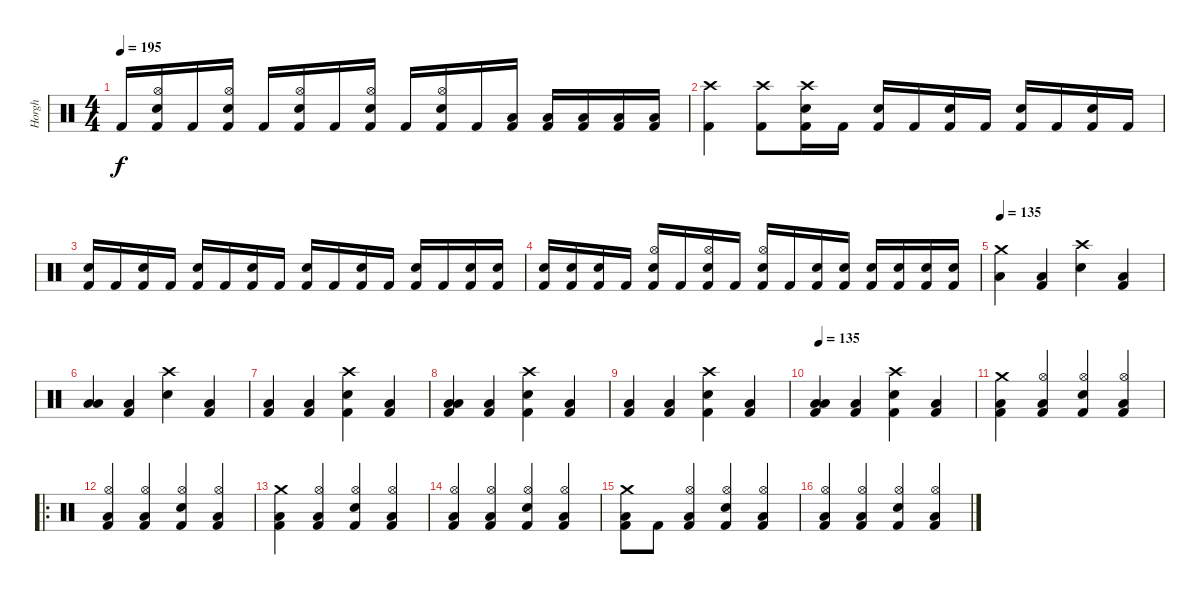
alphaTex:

\track ("Horgh" "Horgh") {instrument percussion}
\staff {score}
\articulation defaults
\ts (4 4)
\tempo 195
\clef neutral
\ks c "Kick (hit) 2".16{dy f}
("Hi-Hat (open)" "Electric Snare (hit)" "Kick (hit) 2").16 "Kick (hit) 2".16 ("Hi-Hat (open)" "Electric Snare (hit)" "Kick (hit) 2").16 "Kick (hit) 2".16 ("Hi-Hat (open)" "Electric Snare (hit)" "Kick (hit) 2").16 "Kick (hit) 2".16 ("Hi-Hat (open)" "Electric Snare (hit)" "Kick (hit) 2").16 "Kick (hit) 2".16 ("Hi-Hat (open)" "Electric Snare (hit)" "Kick (hit) 2").16 "Kick (hit) 2".16 ("Low Floor Tom (hit)" "Kick (hit) 2").16 ("Low Floor Tom (hit)" "Kick (hit) 2").16 ("Low Floor Tom (hit)" "Kick (hit) 2").16 ("Low Floor Tom (hit)" "Kick (hit) 2").16 ("Low Floor Tom (hit)" "Kick (hit) 2").16 |
("Crash high (hit)" "Kick (hit) 2").4 ("Crash high (hit)" "Kick (hit) 2").8 ("Crash high (hit)" "Electric Snare (hit)" "Kick (hit) 2").16 "Kick (hit) 2".16 ("Electric Snare (hit)" "Kick (hit) 2").16 "Kick (hit) 2".16 ("Electric Snare (hit)" "Kick (hit) 2").16 "Kick (hit) 2".16 ("Electric Snare (hit)" "Kick (hit) 2").16 "Kick (hit) 2".16 ("Electric Snare (hit)" "Kick (hit) 2").16 "Kick (hit) 2".16 |
("Electric Snare (hit)" "Kick (hit) 2").16 "Kick (hit) 2".16 ("Electric Snare (hit)" "Kick (hit) 2").16 "Kick (hit) 2".16 ("Electric Snare (hit)" "Kick (hit) 2").16 "Kick (hit) 2".16 ("Electric Snare (hit)" "Kick (hit) 2").16 "Kick (hit) 2".16 ("Electric Snare (hit)" "Kick (hit) 2").16 "Kick (hit) 2".16 ("Electric Snare (hit)" "Kick (hit) 2").16 "Kick (hit) 2".16 ("Electric Snare (hit)" "Kick (hit) 2").16 "Kick (hit) 2".16 ("Electric Snare (hit)" "Kick (hit) 2").16 ("Electric Snare (hit)" "Kick (hit) 2").16 |
("Electric Snare (hit)" "Kick (hit) 2").16 ("Electric Snare (hit)" "Kick (hit) 2").16 ("Electric Snare (hit)" "Kick (hit) 2").16 "Kick (hit) 2".16 ("Hi-Hat (open)" "Electric Snare (hit)" "Kick (hit) 2").16 "Kick (hit) 2".16 ("Hi-Hat (open)" "Electric Snare (hit)" "Kick (hit) 2").16 "Kick (hit) 2".16 ("Hi-Hat (open)" "Electric Snare (hit)" "Kick (hit) 2").16 "Kick (hit) 2".16 ("Electric Snare (hit)" "Kick (hit) 2").16 ("Electric Snare (hit)" "Kick (hit) 2").16 ("Electric Snare (hit)" "Kick (hit) 2").16 ("Electric Snare (hit)" "Kick (hit) 2").16 ("Electric Snare (hit)" "Kick (hit) 2").16 ("Electric Snare (hit)" "Kick (hit) 2").16 |
\tempo 135
("Crash medium (hit)" "Low Floor Tom (hit)").4 ("Low Floor Tom (hit)" "Kick (hit) 2").4 ("Crash high (hit)" "Electric Snare (hit)").4 ("Low Floor Tom (hit)" "Kick (hit) 2").4 |
("Low Floor Tom (hit)" "Low Floor Tom (hit)").4 ("Low Floor Tom (hit)" "Kick (hit) 2").4 ("Crash high (hit)" "Electric Snare (hit)").4 ("Low Floor Tom (hit)" "Kick (hit) 2").4 |
("Low Floor Tom (hit)" "Kick (hit) 2").4 ("Low Floor Tom (hit)" "Kick (hit) 2").4 ("Crash high (hit)" "Electric Snare (hit)" "Kick (hit) 2").4 ("Low Floor Tom (hit)" "Kick (hit) 2").4 |
("Low Floor Tom (hit)" "Low Floor Tom (hit)" "Kick (hit) 2").4 ("Low Floor Tom (hit)" "Kick (hit) 2").4 ("Crash high (hit)" "Electric Snare (hit)" "Kick (hit) 2").4 ("Low Floor Tom (hit)" "Kick (hit) 2").4 |
("Low Floor Tom (hit)" "Kick (hit) 2").4 ("Low Floor Tom (hit)" "Kick (hit) 2").4 ("Crash high (hit)" "Electric Snare (hit)" "Kick (hit) 2").4 ("Low Floor Tom (hit)" "Kick (hit) 2").4 |
\tempo 135
("Low Floor Tom (hit)" "Low Floor Tom (hit)" "Kick (hit) 2").4 ("Low Floor Tom (hit)" "Kick (hit) 2").4 ("Crash high (hit)" "Electric Snare (hit)" "Kick (hit) 2").4 ("Low Floor Tom (hit)" "Kick (hit) 2").4 |
("Crash medium (hit)" "Low Floor Tom (hit)" "Kick (hit) 2").4 ("Hi-Hat (open)" "Low Floor Tom (hit)" "Kick (hit) 2").4 ("Hi-Hat (open)" "Electric Snare (hit)" "Kick (hit) 2").4 ("Hi-Hat (open)" "Low Floor Tom (hit)" "Kick (hit) 2").4 |
\ro
("Hi-Hat (open)" "Low Floor Tom (hit)" "Kick (hit) 2").4 ("Hi-Hat (open)" "Low Floor Tom (hit)" "Kick (hit) 2").4 ("Hi-Hat (open)" "Electric Snare (hit)" "Kick (hit) 2").4 ("Hi-Hat (open)" "Low Floor Tom (hit)" "Kick (hit) 2").4 |
("Crash medium (hit)" "Low Floor Tom (hit)" "Kick (hit) 2").4 ("Hi-Hat (open)" "Low Floor Tom (hit)" "Kick (hit) 2").4 ("Hi-Hat (open)" "Electric Snare (hit)" "Kick (hit) 2").4 ("Hi-Hat (open)" "Low Floor Tom (hit)" "Kick (hit) 2").4 |
("Hi-Hat (open)" "Low Floor Tom (hit)" "Kick (hit) 2").4 ("Hi-Hat (open)" "Low Floor Tom (hit)" "Kick (hit) 2").4 ("Hi-Hat (open)" "Electric Snare (hit)" "Kick (hit) 2").4 ("Hi-Hat (open)" "Low Floor Tom (hit)" "Kick (hit) 2").4 |
("Crash medium (hit)" "Low Floor Tom (hit)" "Kick (hit) 2").8 "Kick (hit) 2".8 ("Hi-Hat (open)" "Low Floor Tom (hit)" "Kick (hit) 2").4 ("Hi-Hat (open)" "Electric Snare (hit)" "Kick (hit) 2").4 ("Hi-Hat (open)" "Low Floor Tom (hit)" "Kick (hit) 2").4 |
("Hi-Hat (open)" "Low Floor Tom (hit)" "Kick (hit) 2").4 ("Hi-Hat (open)" "Low Floor Tom (hit)" "Kick (hit) 2").4 ("Hi-Hat (open)" "Electric Snare (hit)" "Kick (hit) 2").4 ("Hi-Hat (open)" "Low Floor Tom (hit)" "Kick (hit) 2").4
